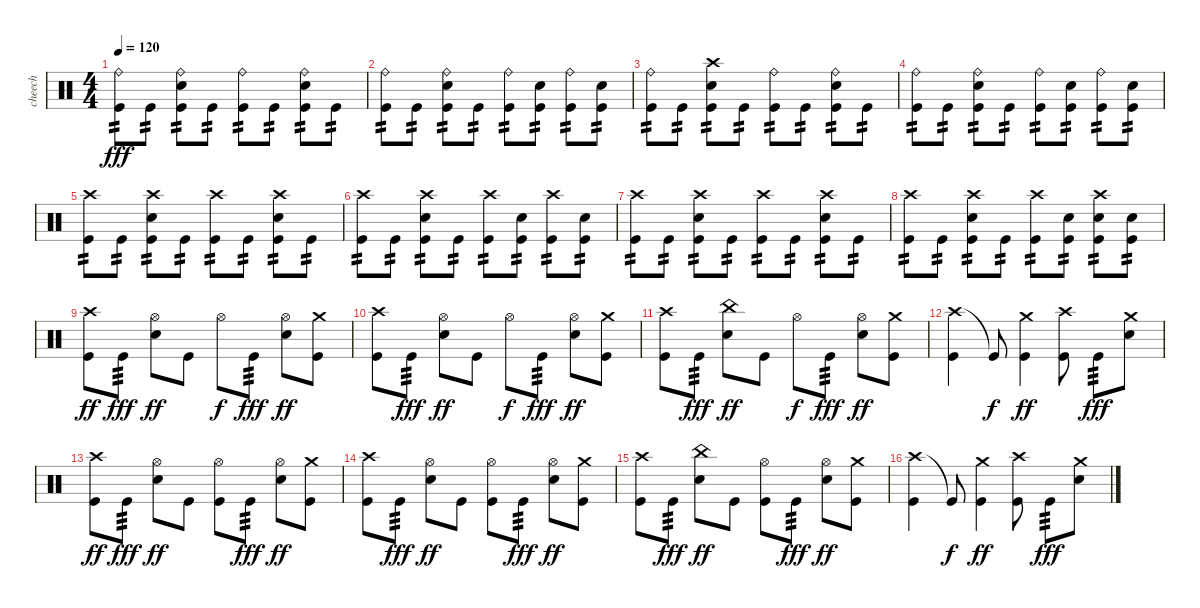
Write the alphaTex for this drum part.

\track ("cheech" "cheech") {instrument percussion}
\staff {score}
\articulation defaults
\ts (4 4)
\tempo 120
\clef neutral
\ks c
("Ride (bell)" "Kick (hit)").8{tp 2 dy fff} "Kick (hit)".8{tp 2} ("Ride (bell)" "Electric Snare (hit)" "Kick (hit)").8{tp 2} "Kick (hit)".8{tp 2} ("Ride (bell)" "Kick (hit)").8{tp 2} "Kick (hit)".8{tp 2} ("Ride (bell)" "Electric Snare (hit)" "Kick (hit)").8{tp 2} "Kick (hit)".8{tp 2} |
("Ride (bell)" "Kick (hit)").8{tp 2} "Kick (hit)".8{tp 2} ("Ride (bell)" "Electric Snare (hit)" "Kick (hit)").8{tp 2} "Kick (hit)".8{tp 2} ("Ride (bell)" "Kick (hit)").8{tp 2} ("Electric Snare (hit)" "Kick (hit)").8{tp 2} ("Ride (bell)" "Kick (hit)").8{tp 2} ("Electric Snare (hit)" "Kick (hit)").8{tp 2} |
("Ride (bell)" "Kick (hit)").8{tp 2} "Kick (hit)".8{tp 2} ("Crash high (hit)" "Electric Snare (hit)" "Kick (hit)").8{tp 2} "Kick (hit)".8{tp 2} ("Ride (bell)" "Kick (hit)").8{tp 2} "Kick (hit)".8{tp 2} ("Ride (bell)" "Electric Snare (hit)" "Kick (hit)").8{tp 2} "Kick (hit)".8{tp 2} |
("Ride (bell)" "Kick (hit)").8{tp 2} "Kick (hit)".8{tp 2} ("Ride (bell)" "Electric Snare (hit)" "Kick (hit)").8{tp 2} "Kick (hit)".8{tp 2} ("Ride (bell)" "Kick (hit)").8{tp 2} ("Electric Snare (hit)" "Kick (hit)").8{tp 2} ("Ride (bell)" "Kick (hit)").8{tp 2} ("Electric Snare (hit)" "Kick (hit)").8{tp 2} |
("Crash high (hit)" "Kick (hit)").8{tp 2} "Kick (hit)".8{tp 2} ("Crash high (hit)" "Electric Snare (hit)" "Kick (hit)").8{tp 2} "Kick (hit)".8{tp 2} ("Crash high (hit)" "Kick (hit)").8{tp 2} "Kick (hit)".8{tp 2} ("Crash high (hit)" "Electric Snare (hit)" "Kick (hit)").8{tp 2} "Kick (hit)".8{tp 2} |
("Crash high (hit)" "Kick (hit)").8{tp 2} "Kick (hit)".8{tp 2} ("Crash high (hit)" "Electric Snare (hit)" "Kick (hit)").8{tp 2} "Kick (hit)".8{tp 2} ("Crash high (hit)" "Kick (hit)").8{tp 2} ("Electric Snare (hit)" "Kick (hit)").8{tp 2} ("Crash high (hit)" "Kick (hit)").8{tp 2} ("Electric Snare (hit)" "Kick (hit)").8{tp 2} |
("Crash high (hit)" "Kick (hit)").8{tp 2} "Kick (hit)".8{tp 2} ("Crash high (hit)" "Electric Snare (hit)" "Kick (hit)").8{tp 2} "Kick (hit)".8{tp 2} ("Crash high (hit)" "Kick (hit)").8{tp 2} "Kick (hit)".8{tp 2} ("Crash high (hit)" "Electric Snare (hit)" "Kick (hit)").8{tp 2} "Kick (hit)".8{tp 2} |
("Crash high (hit)" "Kick (hit)").8{tp 2} "Kick (hit)".8{tp 2} ("Crash high (hit)" "Electric Snare (hit)" "Kick (hit)").8{tp 2} "Kick (hit)".8{tp 2} ("Crash high (hit)" "Kick (hit)").8{tp 2} ("Electric Snare (hit)" "Kick (hit)").8{tp 2} ("Crash high (hit)" "Electric Snare (hit)" "Kick (hit)").8{tp 2} ("Electric Snare (hit)" "Kick (hit)").8{tp 2} |
("Crash high (hit)" "Kick (hit)").8{dy ff} "Kick (hit)".8{tp 3 dy fff} ("Hi-Hat (open)" "Electric Snare (hit)").8{dy ff} "Kick (hit)".8 "Hi-Hat (open)".8{dy f} "Kick (hit)".8{tp 3 dy fff} ("Hi-Hat (open)" "Electric Snare (hit)").8{dy ff} ("Crash medium (hit)" "Kick (hit)").8 |
("Crash high (hit)" "Kick (hit)").8 "Kick (hit)".8{tp 3 dy fff} ("Hi-Hat (open)" "Electric Snare (hit)").8{dy ff} "Kick (hit)".8 "Hi-Hat (open)".8{dy f} "Kick (hit)".8{tp 3 dy fff} ("Hi-Hat (open)" "Electric Snare (hit)").8{dy ff} ("Crash medium (hit)" "Kick (hit)").8 |
("Crash high (hit)" "Kick (hit)").8 "Kick (hit)".8{tp 3 dy fff} ("China (hit)" "Electric Snare (hit)").8{dy ff} "Kick (hit)".8 "Hi-Hat (open)".8{dy f} "Kick (hit)".8{tp 3 dy fff} ("Hi-Hat (open)" "Electric Snare (hit)").8{dy ff} ("Crash medium (hit)" "Kick (hit)").8 |
("Crash high (hit)" "Kick (hit)").4 "Kick (hit)"{t}.8{dy f} ("Crash medium (hit)" "Kick (hit)").4{dy ff} ("Crash high (hit)" "Kick (hit)").8 "Kick (hit)".8{tp 3 dy fff} ("Crash medium (hit)" "Electric Snare (hit)").8 |
("Crash high (hit)" "Kick (hit)").8{dy ff} "Kick (hit)".8{tp 3 dy fff} ("Hi-Hat (open)" "Electric Snare (hit)").8{dy ff} "Kick (hit)".8 ("Hi-Hat (open)" "Kick (hit)").8 "Kick (hit)".8{tp 3 dy fff} ("Hi-Hat (open)" "Electric Snare (hit)").8{dy ff} ("Crash medium (hit)" "Kick (hit)").8 |
("Crash high (hit)" "Kick (hit)").8 "Kick (hit)".8{tp 3 dy fff} ("Hi-Hat (open)" "Electric Snare (hit)").8{dy ff} "Kick (hit)".8 ("Hi-Hat (open)" "Kick (hit)").8 "Kick (hit)".8{tp 3 dy fff} ("Hi-Hat (open)" "Electric Snare (hit)").8{dy ff} ("Crash medium (hit)" "Kick (hit)").8 |
("Crash high (hit)" "Kick (hit)").8 "Kick (hit)".8{tp 3 dy fff} ("China (hit)" "Electric Snare (hit)").8{dy ff} "Kick (hit)".8 ("Hi-Hat (open)" "Kick (hit)").8 "Kick (hit)".8{tp 3 dy fff} ("Hi-Hat (open)" "Electric Snare (hit)").8{dy ff} ("Crash medium (hit)" "Kick (hit)").8 |
("Crash high (hit)" "Kick (hit)").4 "Kick (hit)"{t}.8{dy f} ("Crash medium (hit)" "Kick (hit)").4{dy ff} ("Crash high (hit)" "Kick (hit)").8 "Kick (hit)".8{tp 3 dy fff} ("Crash medium (hit)" "Electric Snare (hit)").8
